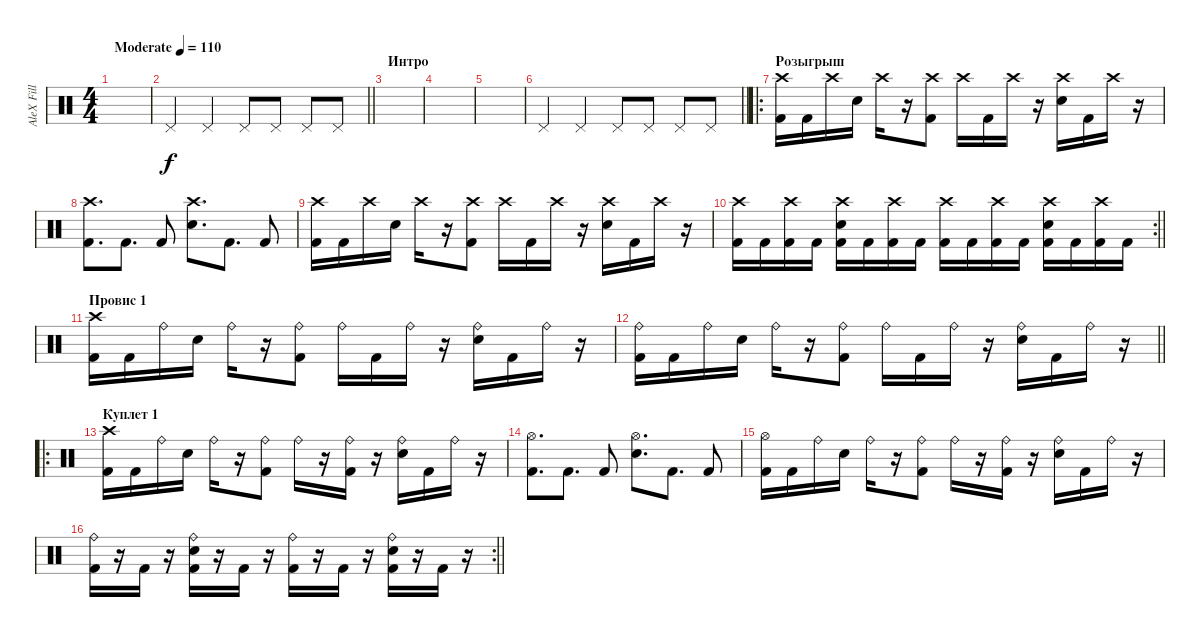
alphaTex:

\track ("AleX Fill" "AleX Fill") {instrument percussion}
\staff {score}
\articulation defaults
\ts (4 4)
\tempo (110 "Moderate")
\clef neutral
\ks c
|
\barLineRight lightlight "Pedal Hi-Hat (hit)".4 "Pedal Hi-Hat (hit)".4 "Pedal Hi-Hat (hit)".8 "Pedal Hi-Hat (hit)".8 "Pedal Hi-Hat (hit)".8 "Pedal Hi-Hat (hit)".8
|
\section ("" "Интро")
|
|
|
\barLineRight lightlight "Pedal Hi-Hat (hit)".4 "Pedal Hi-Hat (hit)".4 "Pedal Hi-Hat (hit)".8 "Pedal Hi-Hat (hit)".8 "Pedal Hi-Hat (hit)".8 "Pedal Hi-Hat (hit)".8
|
\ro
\section ("" "Розыгрыш")
("Crash high (hit)" "Kick (hit) 2").16 "Kick (hit) 2".16 "Crash high (hit)".16 "Electric Snare (hit)".16 "Crash high (hit)".16 r.16 ("Crash high (hit)" "Kick (hit) 2").8 "Crash high (hit)".16 "Kick (hit) 2".16 "Crash high (hit)".16 r.16 ("Crash high (hit)" "Electric Snare (hit)").16 "Kick (hit) 2".16 "Crash high (hit)".16 r.16 |
("Crash high (hit)" "Kick (hit) 2").8{d} "Kick (hit) 2".8{d} "Kick (hit) 2".8 ("Crash high (hit)" "Electric Snare (hit)").8{d} "Kick (hit) 2".8{d} "Kick (hit) 2".8 |
("Crash high (hit)" "Kick (hit) 2").16 "Kick (hit) 2".16 "Crash high (hit)".16 "Electric Snare (hit)".16 "Crash high (hit)".16 r.16 ("Crash high (hit)" "Kick (hit) 2").8 "Crash high (hit)".16 "Kick (hit) 2".16 "Crash high (hit)".16 r.16 ("Crash high (hit)" "Electric Snare (hit)").16 "Kick (hit) 2".16 "Crash high (hit)".16 r.16 |
\rc 2
\barLineRight lightlight
("Crash high (hit)" "Kick (hit) 2").16 "Kick (hit) 2".16 ("Crash high (hit)" "Kick (hit) 2").16 "Kick (hit) 2".16 ("Crash high (hit)" "Electric Snare (hit)" "Kick (hit) 2").16 "Kick (hit) 2".16 ("Crash high (hit)" "Kick (hit) 2").16 "Kick (hit) 2".16 ("Crash high (hit)" "Kick (hit) 2").16 "Kick (hit) 2".16 ("Crash high (hit)" "Kick (hit) 2").16 "Kick (hit) 2".16 ("Crash high (hit)" "Electric Snare (hit)" "Kick (hit) 2").16 "Kick (hit) 2".16 ("Crash high (hit)" "Kick (hit) 2").16 "Kick (hit) 2".16 |
\section ("" "Провис 1")
("Crash high (hit)" "Kick (hit) 2").16 "Kick (hit) 2".16 "Ride (bell)".16 "Electric Snare (hit)".16 "Ride (bell)".16 r.16 ("Ride (bell)" "Kick (hit) 2").8 "Ride (bell)".16 "Kick (hit) 2".16 "Ride (bell)".16 r.16 ("Ride (bell)" "Electric Snare (hit)").16 "Kick (hit) 2".16 "Ride (bell)".16 r.16 |
\barLineRight lightlight
("Ride (bell)" "Kick (hit) 2").16 "Kick (hit) 2".16 "Ride (bell)".16 "Electric Snare (hit)".16 "Ride (bell)".16 r.16 ("Ride (bell)" "Kick (hit) 2").8 "Ride (bell)".16 "Kick (hit) 2".16 "Ride (bell)".16 r.16 ("Ride (bell)" "Electric Snare (hit)").16 "Kick (hit) 2".16 "Ride (bell)".16 r.16 |
\ro
\section ("" "Куплет 1")
("Crash high (hit)" "Kick (hit) 2").16 "Kick (hit) 2".16 "Ride (bell)".16 "Electric Snare (hit)".16 "Ride (bell)".16 r.16 ("Ride (bell)" "Kick (hit) 2").8 "Ride (bell)".16 r.16 ("Ride (bell)" "Kick (hit) 2").16 r.16 ("Ride (bell)" "Electric Snare (hit)").16 "Kick (hit) 2".16 "Ride (bell)".16 r.16 |
("Hi-Hat (open)" "Kick (hit) 2").8{d} "Kick (hit) 2".8{d} "Kick (hit) 2".8 ("Hi-Hat (open)" "Electric Snare (hit)").8{d} "Kick (hit) 2".8{d} "Kick (hit) 2".8 |
("Hi-Hat (open)" "Kick (hit) 2").16 "Kick (hit) 2".16 "Ride (bell)".16 "Electric Snare (hit)".16 "Ride (bell)".16 r.16 ("Ride (bell)" "Kick (hit) 2").8 "Ride (bell)".16 r.16 ("Ride (bell)" "Kick (hit) 2").16 r.16 ("Ride (bell)" "Electric Snare (hit)").16 "Kick (hit) 2".16 "Ride (bell)".16 r.16 |
\rc 2
\barLineRight lightlight
("Ride (bell)" "Kick (hit) 2").16 r.16 "Kick (hit) 2".16 r.16 ("Ride (bell)" "Electric Snare (hit)" "Kick (hit) 2").16 r.16 "Kick (hit) 2".16 r.16 ("Ride (bell)" "Kick (hit) 2").16 r.16 "Kick (hit) 2".16 r.16 ("Ride (bell)" "Electric Snare (hit)" "Kick (hit) 2").16 r.16 "Kick (hit) 2".16 r.16
